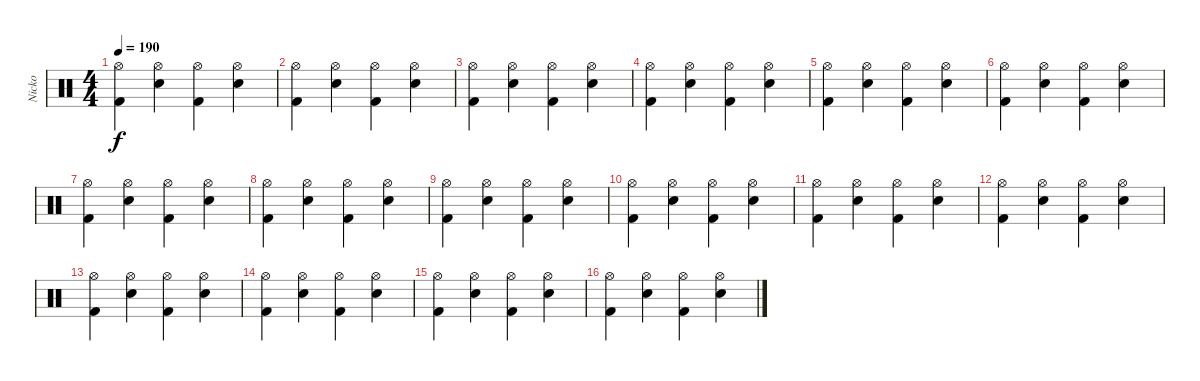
\track ("Nicko" "Nicko") {instrument percussion}
\staff {score}
\articulation defaults
\ts (4 4)
\tempo 190
\clef neutral
\ks c
("Hi-Hat (open)" "Kick (hit) 2").4{dy f} ("Hi-Hat (open)" "Electric Snare (hit)").4 ("Hi-Hat (open)" "Kick (hit) 2").4 ("Hi-Hat (open)" "Electric Snare (hit)").4 |
("Hi-Hat (open)" "Kick (hit) 2").4 ("Hi-Hat (open)" "Electric Snare (hit)").4 ("Hi-Hat (open)" "Kick (hit) 2").4 ("Hi-Hat (open)" "Electric Snare (hit)").4 |
("Hi-Hat (open)" "Kick (hit) 2").4 ("Hi-Hat (open)" "Electric Snare (hit)").4 ("Hi-Hat (open)" "Kick (hit) 2").4 ("Hi-Hat (open)" "Electric Snare (hit)").4 |
("Hi-Hat (open)" "Kick (hit) 2").4 ("Hi-Hat (open)" "Electric Snare (hit)").4 ("Hi-Hat (open)" "Kick (hit) 2").4 ("Hi-Hat (open)" "Electric Snare (hit)").4 |
("Hi-Hat (open)" "Kick (hit) 2").4 ("Hi-Hat (open)" "Electric Snare (hit)").4 ("Hi-Hat (open)" "Kick (hit) 2").4 ("Hi-Hat (open)" "Electric Snare (hit)").4 |
("Hi-Hat (open)" "Kick (hit) 2").4 ("Hi-Hat (open)" "Electric Snare (hit)").4 ("Hi-Hat (open)" "Kick (hit) 2").4 ("Hi-Hat (open)" "Electric Snare (hit)").4 |
("Hi-Hat (open)" "Kick (hit) 2").4 ("Hi-Hat (open)" "Electric Snare (hit)").4 ("Hi-Hat (open)" "Kick (hit) 2").4 ("Hi-Hat (open)" "Electric Snare (hit)").4 |
("Hi-Hat (open)" "Kick (hit) 2").4 ("Hi-Hat (open)" "Electric Snare (hit)").4 ("Hi-Hat (open)" "Kick (hit) 2").4 ("Hi-Hat (open)" "Electric Snare (hit)").4 |
("Hi-Hat (open)" "Kick (hit) 2").4 ("Hi-Hat (open)" "Electric Snare (hit)").4 ("Hi-Hat (open)" "Kick (hit) 2").4 ("Hi-Hat (open)" "Electric Snare (hit)").4 |
("Hi-Hat (open)" "Kick (hit) 2").4 ("Hi-Hat (open)" "Electric Snare (hit)").4 ("Hi-Hat (open)" "Kick (hit) 2").4 ("Hi-Hat (open)" "Electric Snare (hit)").4 |
("Hi-Hat (open)" "Kick (hit) 2").4 ("Hi-Hat (open)" "Electric Snare (hit)").4 ("Hi-Hat (open)" "Kick (hit) 2").4 ("Hi-Hat (open)" "Electric Snare (hit)").4 |
("Hi-Hat (open)" "Kick (hit) 2").4 ("Hi-Hat (open)" "Electric Snare (hit)").4 ("Hi-Hat (open)" "Kick (hit) 2").4 ("Hi-Hat (open)" "Electric Snare (hit)").4 |
("Hi-Hat (open)" "Kick (hit) 2").4 ("Hi-Hat (open)" "Electric Snare (hit)").4 ("Hi-Hat (open)" "Kick (hit) 2").4 ("Hi-Hat (open)" "Electric Snare (hit)").4 |
("Hi-Hat (open)" "Kick (hit) 2").4 ("Hi-Hat (open)" "Electric Snare (hit)").4 ("Hi-Hat (open)" "Kick (hit) 2").4 ("Hi-Hat (open)" "Electric Snare (hit)").4 |
("Hi-Hat (open)" "Kick (hit) 2").4 ("Hi-Hat (open)" "Electric Snare (hit)").4 ("Hi-Hat (open)" "Kick (hit) 2").4 ("Hi-Hat (open)" "Electric Snare (hit)").4 |
("Hi-Hat (open)" "Kick (hit) 2").4 ("Hi-Hat (open)" "Electric Snare (hit)").4 ("Hi-Hat (open)" "Kick (hit) 2").4 ("Hi-Hat (open)" "Electric Snare (hit)").4
